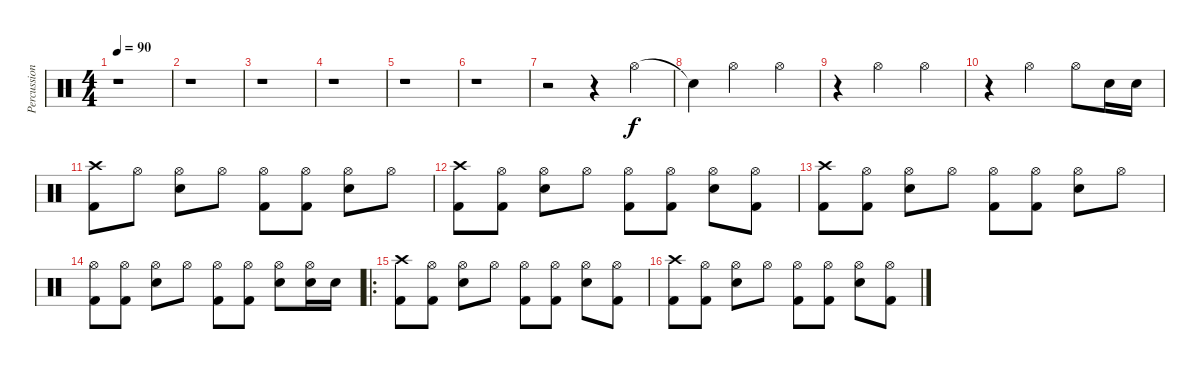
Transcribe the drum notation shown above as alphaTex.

\track ("Percussion" "Percussion") {instrument percussion}
\staff {score}
\articulation defaults
\ts (4 4)
\tempo 90
\clef neutral
\ks c
r.1{dy f} |
r.1 |
r.1 |
r.1 |
r.1 |
r.1 |
r.2 r.4 "Hi-Hat (open)".4 |
"Snare (hit)"{t}.4 "Hi-Hat (open)".2 "Hi-Hat (open)".4 |
r.4 "Hi-Hat (open)".2 "Hi-Hat (open)".4 |
r.4 "Hi-Hat (open)".2 "Hi-Hat (open)".8 "Electric Snare (hit)".16 "Electric Snare (hit)".16 |
("Crash high (hit)" "Kick (hit) 2").8 "Hi-Hat (open)".8 ("Hi-Hat (open)" "Electric Snare (hit)").8 "Hi-Hat (open)".8 ("Hi-Hat (open)" "Kick (hit) 2").8 ("Hi-Hat (open)" "Kick (hit) 2").8 ("Hi-Hat (open)" "Electric Snare (hit)").8 "Hi-Hat (open)".8 |
("Crash high (hit)" "Kick (hit) 2").8 ("Hi-Hat (open)" "Kick (hit) 2").8 ("Hi-Hat (open)" "Electric Snare (hit)").8 "Hi-Hat (open)".8 ("Hi-Hat (open)" "Kick (hit) 2").8 ("Hi-Hat (open)" "Kick (hit) 2").8 ("Hi-Hat (open)" "Electric Snare (hit)").8 ("Hi-Hat (open)" "Kick (hit) 2").8 |
("Crash high (hit)" "Kick (hit) 2").8 ("Hi-Hat (open)" "Kick (hit) 2").8 ("Hi-Hat (open)" "Electric Snare (hit)").8 "Hi-Hat (open)".8 ("Hi-Hat (open)" "Kick (hit) 2").8 ("Hi-Hat (open)" "Kick (hit) 2").8 ("Hi-Hat (open)" "Electric Snare (hit)").8 "Hi-Hat (open)".8 |
("Hi-Hat (open)" "Kick (hit) 2").8 ("Hi-Hat (open)" "Kick (hit) 2").8 ("Hi-Hat (open)" "Electric Snare (hit)").8 "Hi-Hat (open)".8 ("Hi-Hat (open)" "Kick (hit) 2").8 ("Hi-Hat (open)" "Kick (hit) 2").8 ("Hi-Hat (open)" "Electric Snare (hit)").8 ("Hi-Hat (open)" "Electric Snare (hit)").16 "Electric Snare (hit)".16 |
\ro
("Crash high (hit)" "Kick (hit) 2").8 ("Hi-Hat (open)" "Kick (hit) 2").8 ("Hi-Hat (open)" "Electric Snare (hit)").8 "Hi-Hat (open)".8 ("Hi-Hat (open)" "Kick (hit) 2").8 ("Hi-Hat (open)" "Kick (hit) 2").8 ("Hi-Hat (open)" "Electric Snare (hit)").8 ("Hi-Hat (open)" "Kick (hit) 2").8 |
("Crash high (hit)" "Kick (hit) 2").8 ("Hi-Hat (open)" "Kick (hit) 2").8 ("Hi-Hat (open)" "Electric Snare (hit)").8 "Hi-Hat (open)".8 ("Hi-Hat (open)" "Kick (hit) 2").8 ("Hi-Hat (open)" "Kick (hit) 2").8 ("Hi-Hat (open)" "Electric Snare (hit)").8 ("Hi-Hat (open)" "Kick (hit) 2").8
